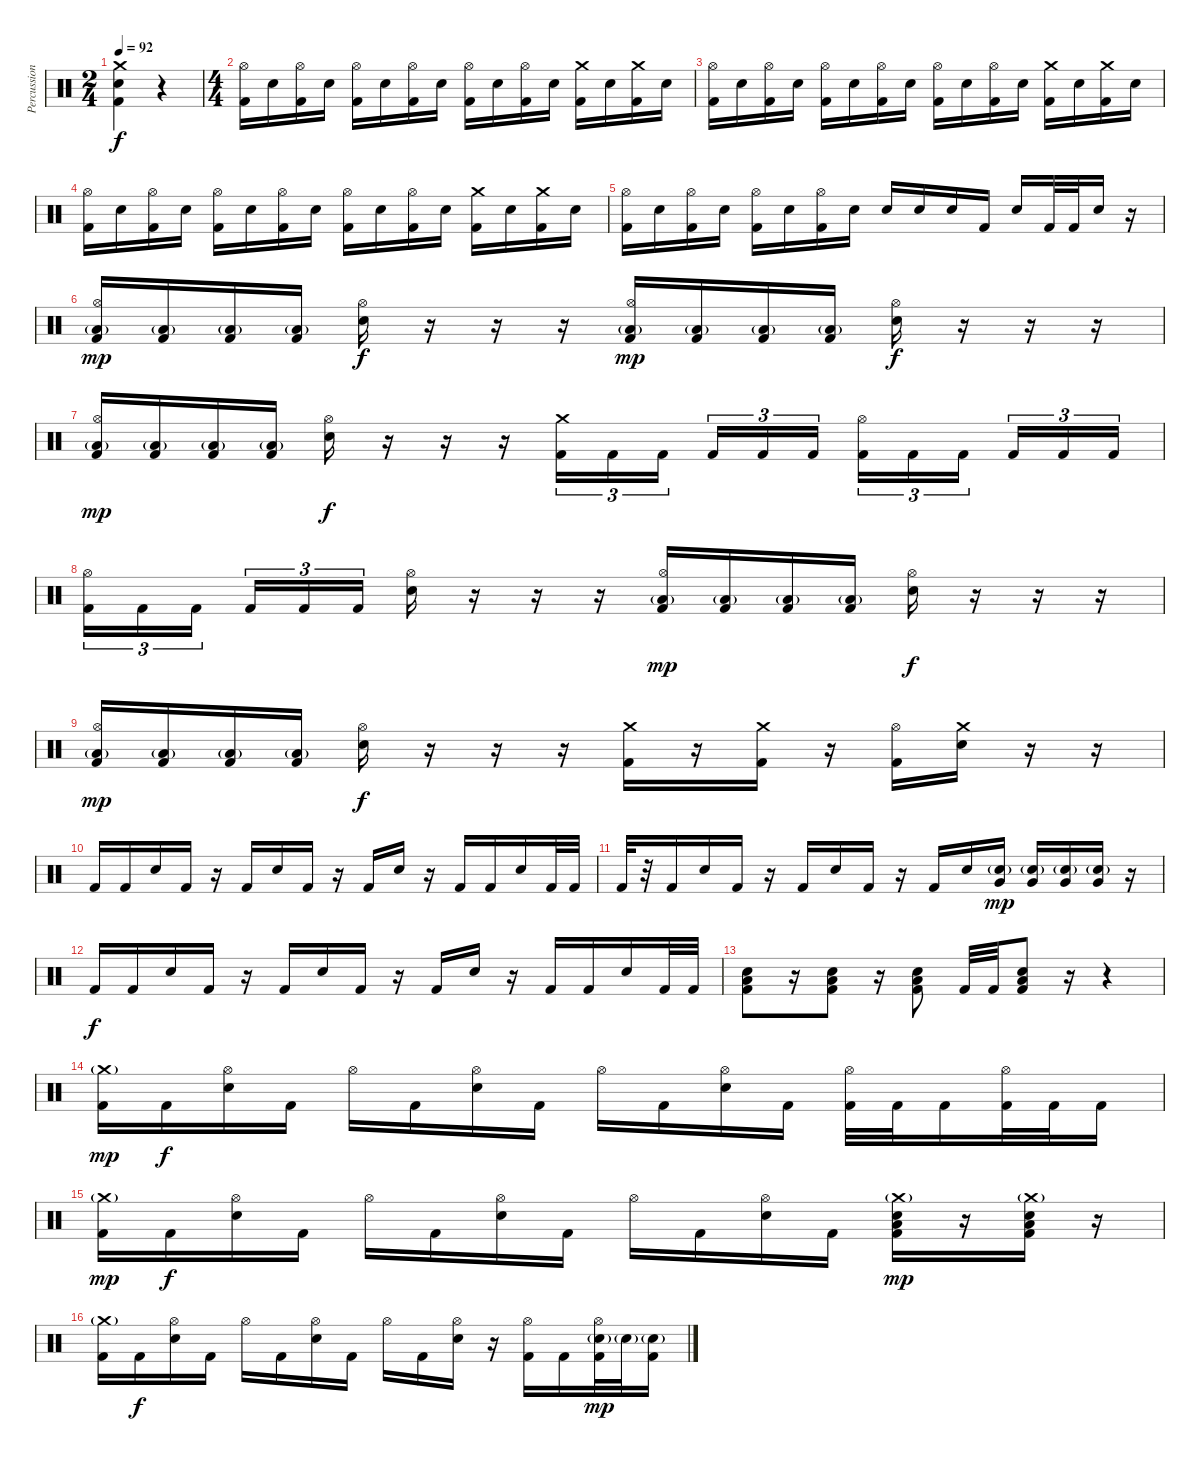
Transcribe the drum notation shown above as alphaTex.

\track ("Percussion" "Percussion") {instrument percussion}
\staff {score}
\articulation defaults
\ts (2 4)
\tempo 92
\clef neutral
\ks c
("Crash medium (hit)" "Electric Snare (hit)" "Kick (hit) 2").4{dy f} r.4 |
\ts (4 4)
("Hi-Hat (open)" "Kick (hit) 2").16 "Electric Snare (hit)".16 ("Hi-Hat (open)" "Kick (hit) 2").16 "Electric Snare (hit)".16 ("Hi-Hat (open)" "Kick (hit) 2").16 "Electric Snare (hit)".16 ("Hi-Hat (open)" "Kick (hit) 2").16 "Electric Snare (hit)".16 ("Hi-Hat (open)" "Kick (hit) 2").16 "Electric Snare (hit)".16 ("Hi-Hat (open)" "Kick (hit) 2").16 "Electric Snare (hit)".16 ("Crash medium (hit)" "Kick (hit) 2").16 "Electric Snare (hit)".16 ("Crash medium (hit)" "Kick (hit) 2").16 "Electric Snare (hit)".16 |
("Hi-Hat (open)" "Kick (hit) 2").16 "Electric Snare (hit)".16 ("Hi-Hat (open)" "Kick (hit) 2").16 "Electric Snare (hit)".16 ("Hi-Hat (open)" "Kick (hit) 2").16 "Electric Snare (hit)".16 ("Hi-Hat (open)" "Kick (hit) 2").16 "Electric Snare (hit)".16 ("Hi-Hat (open)" "Kick (hit) 2").16 "Electric Snare (hit)".16 ("Hi-Hat (open)" "Kick (hit) 2").16 "Electric Snare (hit)".16 ("Crash medium (hit)" "Kick (hit) 2").16 "Electric Snare (hit)".16 ("Crash medium (hit)" "Kick (hit) 2").16 "Electric Snare (hit)".16 |
("Hi-Hat (open)" "Kick (hit) 2").16 "Electric Snare (hit)".16 ("Hi-Hat (open)" "Kick (hit) 2").16 "Electric Snare (hit)".16 ("Hi-Hat (open)" "Kick (hit) 2").16 "Electric Snare (hit)".16 ("Hi-Hat (open)" "Kick (hit) 2").16 "Electric Snare (hit)".16 ("Hi-Hat (open)" "Kick (hit) 2").16 "Electric Snare (hit)".16 ("Hi-Hat (open)" "Kick (hit) 2").16 "Electric Snare (hit)".16 ("Crash medium (hit)" "Kick (hit) 2").16 "Electric Snare (hit)".16 ("Crash medium (hit)" "Kick (hit) 2").16 "Electric Snare (hit)".16 |
("Hi-Hat (open)" "Kick (hit) 2").16 "Electric Snare (hit)".16 ("Hi-Hat (open)" "Kick (hit) 2").16 "Electric Snare (hit)".16 ("Hi-Hat (open)" "Kick (hit) 2").16 "Electric Snare (hit)".16 ("Hi-Hat (open)" "Kick (hit) 2").16 "Electric Snare (hit)".16 "Electric Snare (hit)".16 "Electric Snare (hit)".16 "Electric Snare (hit)".16 "Kick (hit) 2".16 "Electric Snare (hit)".16 "Kick (hit) 2".32 "Kick (hit) 2".32 "Electric Snare (hit)".16 r.16 |
("Hi-Hat (open)" "Low Floor Tom (hit)"{g} "Kick (hit) 2").16{dy mp} ("Low Floor Tom (hit)"{g} "Kick (hit) 2").16 ("Low Floor Tom (hit)"{g} "Kick (hit) 2").16 ("Low Floor Tom (hit)"{g} "Kick (hit) 2").16 ("Hi-Hat (open)" "Electric Snare (hit)").16{dy f} r.16 r.16 r.16 ("Hi-Hat (open)" "Low Floor Tom (hit)"{g} "Kick (hit) 2").16{dy mp} ("Low Floor Tom (hit)"{g} "Kick (hit) 2").16 ("Low Floor Tom (hit)"{g} "Kick (hit) 2").16 ("Low Floor Tom (hit)"{g} "Kick (hit) 2").16 ("Hi-Hat (open)" "Electric Snare (hit)").16{dy f} r.16 r.16 r.16 |
("Hi-Hat (open)" "Low Floor Tom (hit)"{g} "Kick (hit) 2").16{dy mp} ("Low Floor Tom (hit)"{g} "Kick (hit) 2").16 ("Low Floor Tom (hit)"{g} "Kick (hit) 2").16 ("Low Floor Tom (hit)"{g} "Kick (hit) 2").16 ("Hi-Hat (open)" "Electric Snare (hit)").16{dy f} r.16 r.16 r.16 ("Crash medium (hit)" "Kick (hit) 2").16{tu (3 2)} "Kick (hit) 2".16{tu (3 2)} "Kick (hit) 2".16{tu (3 2) beam splitsecondary} "Kick (hit) 2".16{tu (3 2)} "Kick (hit) 2".16{tu (3 2)} "Kick (hit) 2".16{tu (3 2)} ("Hi-Hat (open)" "Kick (hit) 2").16{tu (3 2)} "Kick (hit) 2".16{tu (3 2)} "Kick (hit) 2".16{tu (3 2) beam splitsecondary} "Kick (hit) 2".16{tu (3 2)} "Kick (hit) 2".16{tu (3 2)} "Kick (hit) 2".16{tu (3 2)} |
("Hi-Hat (open)" "Kick (hit) 2").16{tu (3 2)} "Kick (hit) 2".16{tu (3 2)} "Kick (hit) 2".16{tu (3 2) beam splitsecondary} "Kick (hit) 2".16{tu (3 2)} "Kick (hit) 2".16{tu (3 2)} "Kick (hit) 2".16{tu (3 2)} ("Hi-Hat (open)" "Electric Snare (hit)").16 r.16 r.16 r.16 ("Hi-Hat (open)" "Low Floor Tom (hit)"{g} "Kick (hit) 2").16{dy mp} ("Low Floor Tom (hit)"{g} "Kick (hit) 2").16 ("Low Floor Tom (hit)"{g} "Kick (hit) 2").16 ("Low Floor Tom (hit)"{g} "Kick (hit) 2").16 ("Hi-Hat (open)" "Electric Snare (hit)").16{dy f} r.16 r.16 r.16 |
("Hi-Hat (open)" "Low Floor Tom (hit)"{g} "Kick (hit) 2").16{dy mp} ("Low Floor Tom (hit)"{g} "Kick (hit) 2").16 ("Low Floor Tom (hit)"{g} "Kick (hit) 2").16 ("Low Floor Tom (hit)"{g} "Kick (hit) 2").16 ("Hi-Hat (open)" "Electric Snare (hit)").16{dy f} r.16 r.16 r.16 ("Crash medium (hit)" "Kick (hit) 2").16 r.16 ("Crash medium (hit)" "Kick (hit) 2").16 r.16 ("Hi-Hat (open)" "Kick (hit) 2").16 ("Crash medium (hit)" "Electric Snare (hit)").16 r.16 r.16 |
"Kick (hit) 2".16 "Kick (hit) 2".16 "Electric Snare (hit)".16 "Kick (hit) 2".16 r.16 "Kick (hit) 2".16 "Electric Snare (hit)".16 "Kick (hit) 2".16 r.16 "Kick (hit) 2".16 "Electric Snare (hit)".16 r.16 "Kick (hit) 2".16 "Kick (hit) 2".16 "Electric Snare (hit)".16 "Kick (hit) 2".32 "Kick (hit) 2".32 |
"Kick (hit) 2".32 r.32 "Kick (hit) 2".16 "Electric Snare (hit)".16 "Kick (hit) 2".16 r.16 "Kick (hit) 2".16 "Electric Snare (hit)".16 "Kick (hit) 2".16 r.16 "Kick (hit) 2".16 "Electric Snare (hit)".16 ("Very Low Tom (hit)" "Electric Snare (hit)"{g}).16{dy mp} ("Very Low Tom (hit)" "Electric Snare (hit)"{g}).16 ("Very Low Tom (hit)" "Electric Snare (hit)"{g}).16 ("Very Low Tom (hit)" "Electric Snare (hit)"{g}).16 r.16 |
"Kick (hit) 2".16{dy f} "Kick (hit) 2".16 "Electric Snare (hit)".16 "Kick (hit) 2".16 r.16 "Kick (hit) 2".16 "Electric Snare (hit)".16 "Kick (hit) 2".16 r.16 "Kick (hit) 2".16 "Electric Snare (hit)".16 r.16 "Kick (hit) 2".16 "Kick (hit) 2".16 "Electric Snare (hit)".16 "Kick (hit) 2".32 "Kick (hit) 2".32 |
("Low Floor Tom (hit)" "Electric Snare (hit)" "Kick (hit) 2").8 r.16 ("Low Floor Tom (hit)" "Electric Snare (hit)" "Kick (hit) 2").8 r.16 ("Low Floor Tom (hit)" "Electric Snare (hit)" "Kick (hit) 2").8 "Kick (hit) 2".32 "Kick (hit) 2".32 ("Low Floor Tom (hit)" "Electric Snare (hit)" "Kick (hit) 2").8 r.16 r.4 |
("Crash medium (hit)"{g} "Kick (hit) 2").16{dy mp} "Kick (hit) 2".16{dy f} ("Hi-Hat (open)" "Electric Snare (hit)").16 "Kick (hit) 2".16 "Hi-Hat (open)".16 "Kick (hit) 2".16 ("Hi-Hat (open)" "Electric Snare (hit)").16 "Kick (hit) 2".16 "Hi-Hat (open)".16 "Kick (hit) 2".16 ("Hi-Hat (open)" "Electric Snare (hit)").16 "Kick (hit) 2".16 ("Hi-Hat (open)" "Kick (hit) 2").32 "Kick (hit) 2".32 "Kick (hit) 2".16 ("Hi-Hat (open)" "Kick (hit) 2").32 "Kick (hit) 2".32 "Kick (hit) 2".16 |
("Crash medium (hit)"{g} "Kick (hit) 2").16{dy mp} "Kick (hit) 2".16{dy f} ("Hi-Hat (open)" "Electric Snare (hit)").16 "Kick (hit) 2".16 "Hi-Hat (open)".16 "Kick (hit) 2".16 ("Hi-Hat (open)" "Electric Snare (hit)").16 "Kick (hit) 2".16 "Hi-Hat (open)".16 "Kick (hit) 2".16 ("Hi-Hat (open)" "Electric Snare (hit)").16 "Kick (hit) 2".16 ("Crash medium (hit)"{g} "Low Floor Tom (hit)" "Electric Snare (hit)" "Kick (hit) 2").16{dy mp} r.16 ("Crash medium (hit)"{g} "Low Floor Tom (hit)" "Electric Snare (hit)" "Kick (hit) 2").16 r.16 |
("Crash medium (hit)"{g} "Kick (hit) 2").16 "Kick (hit) 2".16{dy f} ("Hi-Hat (open)" "Electric Snare (hit)").16 "Kick (hit) 2".16 "Hi-Hat (open)".16 "Kick (hit) 2".16 ("Hi-Hat (open)" "Electric Snare (hit)").16 "Kick (hit) 2".16 "Hi-Hat (open)".16 "Kick (hit) 2".16 ("Hi-Hat (open)" "Electric Snare (hit)").16 r.16 ("Hi-Hat (open)" "Kick (hit) 2").16 "Kick (hit) 2".16 ("Hi-Hat (open)" "Electric Snare (hit)"{g} "Kick (hit) 2").32{dy mp} "Electric Snare (hit)"{g}.32 ("Electric Snare (hit)"{g} "Kick (hit) 2").16
